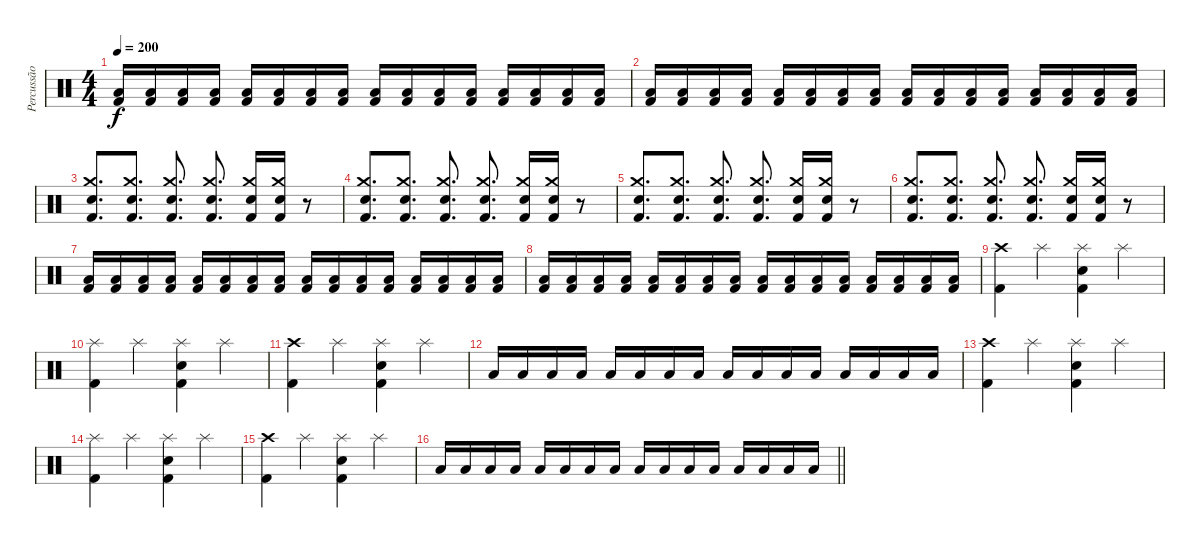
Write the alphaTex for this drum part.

\track ("Percussão" "Percussão") {instrument percussion}
\staff {score}
\articulation defaults
\ts (4 4)
\tempo 200
\clef neutral
\ks c
("Kick (hit) 2" "Low Tom (hit)").16{dy f} ("Kick (hit) 2" "Low Tom (hit)").16 ("Kick (hit) 2" "Low Floor Tom (hit)").16 ("Kick (hit) 2" "Low Floor Tom (hit)").16 ("Kick (hit) 2" "Low Floor Tom (hit)").16 ("Kick (hit) 2" "Low Floor Tom (hit)").16 ("Kick (hit) 2" "Low Tom (hit)").16 ("Kick (hit) 2" "Low Tom (hit)").16 ("Kick (hit) 2" "Low Floor Tom (hit)").16 ("Kick (hit) 2" "Low Floor Tom (hit)").16 ("Kick (hit) 2" "Low Floor Tom (hit)").16 ("Kick (hit) 2" "Low Floor Tom (hit)").16 ("Kick (hit) 2" "Low Tom (hit)").16 ("Kick (hit) 2" "Low Tom (hit)").16 ("Kick (hit) 2" "Low Floor Tom (hit)").16 ("Kick (hit) 2" "Low Floor Tom (hit)").16 |
("Kick (hit) 2" "Low Tom (hit)").16 ("Kick (hit) 2" "Low Tom (hit)").16 ("Kick (hit) 2" "Low Floor Tom (hit)").16 ("Kick (hit) 2" "Low Floor Tom (hit)").16 ("Kick (hit) 2" "Low Floor Tom (hit)").16 ("Kick (hit) 2" "Low Floor Tom (hit)").16 ("Kick (hit) 2" "Low Tom (hit)").16 ("Kick (hit) 2" "Low Tom (hit)").16 ("Kick (hit) 2" "Low Floor Tom (hit)").16 ("Kick (hit) 2" "Low Floor Tom (hit)").16 ("Kick (hit) 2" "Low Floor Tom (hit)").16 ("Kick (hit) 2" "Low Floor Tom (hit)").16 ("Kick (hit) 2" "Low Tom (hit)").16 ("Kick (hit) 2" "Low Tom (hit)").16 ("Kick (hit) 2" "Low Floor Tom (hit)").16 ("Kick (hit) 2" "Low Floor Tom (hit)").16 |
("Kick (hit) 2" "Crash medium (hit)" "Snare (hit) 2").8{d} ("Kick (hit) 2" "Crash medium (hit)" "Snare (hit) 2").8{d} ("Kick (hit) 2" "Crash medium (hit)" "Snare (hit) 2").8{d} ("Kick (hit) 2" "Crash medium (hit)" "Snare (hit) 2").8{d} ("Kick (hit) 2" "Crash medium (hit)" "Snare (hit) 2").16 ("Kick (hit) 2" "Crash medium (hit)" "Snare (hit) 2").16 r.8 |
("Kick (hit) 2" "Crash medium (hit)" "Snare (hit) 2").8{d} ("Kick (hit) 2" "Crash medium (hit)" "Snare (hit) 2").8{d} ("Kick (hit) 2" "Crash medium (hit)" "Snare (hit) 2").8{d} ("Kick (hit) 2" "Crash medium (hit)" "Snare (hit) 2").8{d} ("Kick (hit) 2" "Crash medium (hit)" "Snare (hit) 2").16 ("Kick (hit) 2" "Crash medium (hit)" "Snare (hit) 2").16 r.8 |
("Kick (hit) 2" "Crash medium (hit)" "Snare (hit) 2").8{d} ("Kick (hit) 2" "Crash medium (hit)" "Snare (hit) 2").8{d} ("Kick (hit) 2" "Crash medium (hit)" "Snare (hit) 2").8{d} ("Kick (hit) 2" "Crash medium (hit)" "Snare (hit) 2").8{d} ("Kick (hit) 2" "Crash medium (hit)" "Snare (hit) 2").16 ("Kick (hit) 2" "Crash medium (hit)" "Snare (hit) 2").16 r.8 |
("Kick (hit) 2" "Crash medium (hit)" "Snare (hit) 2").8{d} ("Kick (hit) 2" "Crash medium (hit)" "Snare (hit) 2").8{d} ("Kick (hit) 2" "Crash medium (hit)" "Snare (hit) 2").8{d} ("Kick (hit) 2" "Crash medium (hit)" "Snare (hit) 2").8{d} ("Kick (hit) 2" "Crash medium (hit)" "Snare (hit) 2").16 ("Kick (hit) 2" "Crash medium (hit)" "Snare (hit) 2").16 r.8 |
("Kick (hit) 2" "Low Tom (hit)").16 ("Kick (hit) 2" "Low Tom (hit)").16 ("Kick (hit) 2" "Low Floor Tom (hit)").16 ("Kick (hit) 2" "Low Floor Tom (hit)").16 ("Kick (hit) 2" "Low Floor Tom (hit)").16 ("Kick (hit) 2" "Low Floor Tom (hit)").16 ("Kick (hit) 2" "Low Tom (hit)").16 ("Kick (hit) 2" "Low Tom (hit)").16 ("Kick (hit) 2" "Low Floor Tom (hit)").16 ("Kick (hit) 2" "Low Floor Tom (hit)").16 ("Kick (hit) 2" "Low Floor Tom (hit)").16 ("Kick (hit) 2" "Low Floor Tom (hit)").16 ("Kick (hit) 2" "Low Tom (hit)").16 ("Kick (hit) 2" "Low Tom (hit)").16 ("Kick (hit) 2" "Low Floor Tom (hit)").16 ("Kick (hit) 2" "Low Floor Tom (hit)").16 |
("Kick (hit) 2" "Low Tom (hit)").16 ("Kick (hit) 2" "Low Tom (hit)").16 ("Kick (hit) 2" "Low Floor Tom (hit)").16 ("Kick (hit) 2" "Low Floor Tom (hit)").16 ("Kick (hit) 2" "Low Floor Tom (hit)").16 ("Kick (hit) 2" "Low Floor Tom (hit)").16 ("Kick (hit) 2" "Low Tom (hit)").16 ("Kick (hit) 2" "Low Tom (hit)").16 ("Kick (hit) 2" "Low Floor Tom (hit)").16 ("Kick (hit) 2" "Low Floor Tom (hit)").16 ("Kick (hit) 2" "Low Floor Tom (hit)").16 ("Kick (hit) 2" "Low Floor Tom (hit)").16 ("Kick (hit) 2" "Low Tom (hit)").16 ("Kick (hit) 2" "Low Tom (hit)").16 ("Kick (hit) 2" "Low Floor Tom (hit)").16 ("Kick (hit) 2" "Low Floor Tom (hit)").16 |
("Kick (hit) 2" "Crash high (hit)").4 "Splash (hit)".4 ("Kick (hit) 2" "Splash (hit)" "Snare (hit) 2").4 "Splash (hit)".4 |
("Kick (hit) 2" "Splash (hit)").4 "Splash (hit)".4 ("Kick (hit) 2" "Splash (hit)" "Snare (hit) 2").4 "Splash (hit)".4 |
("Kick (hit) 2" "Crash high (hit)").4 "Splash (hit)".4 ("Kick (hit) 2" "Splash (hit)" "Snare (hit) 2").4 "Splash (hit)".4 |
"Low Tom (hit)".16 "Low Tom (hit)".16 "Low Tom (hit)".16 "Low Tom (hit)".16 "Low Tom (hit)".16 "Low Tom (hit)".16 "Low Tom (hit)".16 "Low Tom (hit)".16 "Low Floor Tom (hit)".16 "Low Floor Tom (hit)".16 "Low Floor Tom (hit)".16 "Low Floor Tom (hit)".16 "Low Floor Tom (hit)".16 "Low Floor Tom (hit)".16 "Low Floor Tom (hit)".16 "Low Floor Tom (hit)".16 |
("Kick (hit) 2" "Crash high (hit)").4 "Splash (hit)".4 ("Kick (hit) 2" "Splash (hit)" "Snare (hit) 2").4 "Splash (hit)".4 |
("Kick (hit) 2" "Splash (hit)").4 "Splash (hit)".4 ("Kick (hit) 2" "Splash (hit)" "Snare (hit) 2").4 "Splash (hit)".4 |
("Kick (hit) 2" "Crash high (hit)").4 "Splash (hit)".4 ("Kick (hit) 2" "Splash (hit)" "Snare (hit) 2").4 "Splash (hit)".4 |
\barLineRight lightlight "Low Tom (hit)".16 "Low Tom (hit)".16 "Low Tom (hit)".16 "Low Tom (hit)".16 "Low Tom (hit)".16 "Low Tom (hit)".16 "Low Tom (hit)".16 "Low Tom (hit)".16 "Low Floor Tom (hit)".16 "Low Floor Tom (hit)".16 "Low Floor Tom (hit)".16 "Low Floor Tom (hit)".16 "Low Floor Tom (hit)".16 "Low Floor Tom (hit)".16 "Low Floor Tom (hit)".16 "Low Floor Tom (hit)".16
